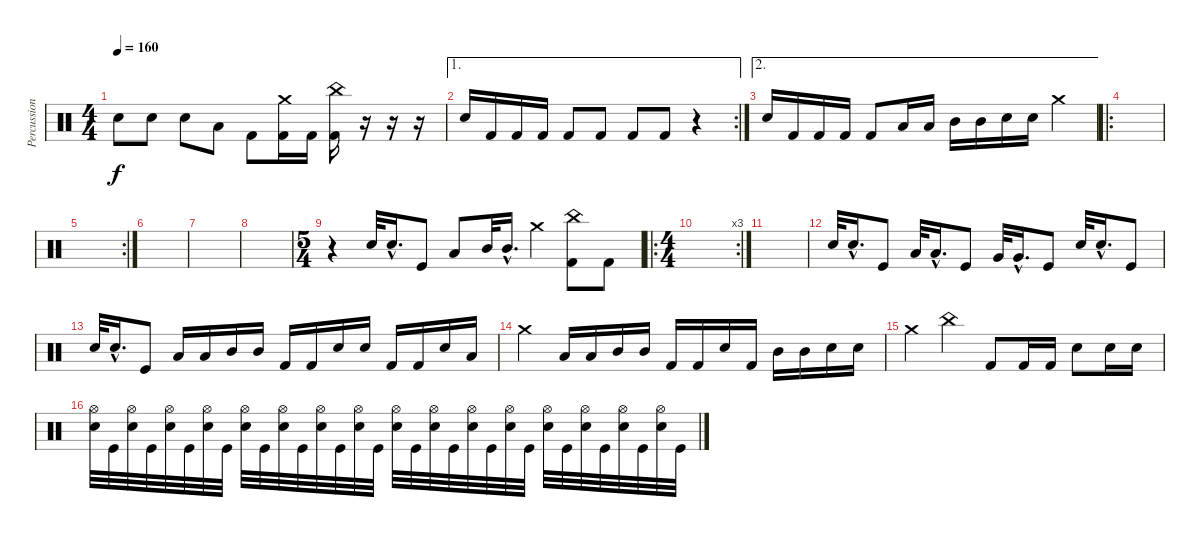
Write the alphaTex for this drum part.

\track ("Percussion" "Percussion") {instrument percussion}
\staff {score}
\articulation defaults
\ts (4 4)
\tempo 160
\clef neutral
\ks c "Electric Snare (hit)".8{dy f} "Electric Snare (hit)".8 "Electric Snare (hit)".8 "Low Floor Tom (hit)".8 "Kick (hit) 2".8
("Crash medium (hit)" "Kick (hit) 2").16 "Kick (hit) 2".16 ("China (hit)" "Kick (hit) 2").16 r.16 r.16 r.16 |
\ae 1
\rc 2 "Electric Snare (hit)".16 "Kick (hit) 2".16 "Kick (hit) 2".16 "Kick (hit) 2".16 "Kick (hit) 2".8 "Kick (hit) 2".8 "Kick (hit) 2".8 "Kick (hit) 2".8
r.4 |
\ae 2 "Electric Snare (hit)".16 "Kick (hit) 2".16 "Kick (hit) 2".16 "Kick (hit) 2".16 "Kick (hit) 2".8 "Low Tom (hit)".16 "Low Tom (hit)".16 "Mid Tom (hit)".16 "Mid Tom (hit)".16 "Electric Snare (hit)".16 "Electric Snare (hit)".16 "Crash medium (hit)".4
|
\ro
|
\rc 2
|
|
|
|
\ts (5 4)
r.4 "Electric Snare (hit)".32 "Electric Snare (hit)"{hac}.16{d} "Kick (hit)".8 "Low Tom (hit)".8 "Mid Tom (hit)".32 "Mid Tom (hit)"{hac}.16{d} "Crash medium (hit)".4 ("China (hit)" "Kick (hit) 2").8 "Kick (hit) 2".8 |
\ro
\rc 3
\ts (4 4)
|
|
"Electric Snare (hit)".32 "Electric Snare (hit)"{hac}.16{d} "Kick (hit)".8 "Low Tom (hit)".32 "Low Tom (hit)"{hac}.16{d} "Kick (hit)".8 "Very Low Tom (hit)".32 "Very Low Tom (hit)"{hac}.16{d} "Kick (hit)".8 "Electric Snare (hit)".32 "Electric Snare (hit)"{hac}.16{d} "Kick (hit)".8 |
"Electric Snare (hit)".32 "Electric Snare (hit)"{hac}.16{d} "Kick (hit)".8 "Low Tom (hit)".16 "Low Tom (hit)".16 "Mid Tom (hit)".16 "Mid Tom (hit)".16 "Kick (hit) 2".16 "Kick (hit) 2".16 "Electric Snare (hit)".16 "Electric Snare (hit)".16 "Kick (hit) 2".16 "Kick (hit) 2".16 "Electric Snare (hit)".16 "Low Floor Tom (hit)".16 |
"Crash medium (hit)".4 "Low Tom (hit)".16 "Low Tom (hit)".16 "Mid Tom (hit)".16 "Mid Tom (hit)".16 "Kick (hit) 2".16 "Kick (hit) 2".16 "Electric Snare (hit)".16 "Kick (hit) 2".16 "Mid Tom (hit)".16 "Mid Tom (hit)".16 "Electric Snare (hit)".16 "Electric Snare (hit)".16 |
"Crash medium (hit)".4 "China (hit)".4 "Kick (hit) 2".8 "Kick (hit) 2".16 "Kick (hit) 2".16 "Electric Snare (hit)".8 "Electric Snare (hit)".16 "Electric Snare (hit)".16 |
("Hi-Hat (open)" "Electric Snare (hit)").32 "Kick (hit)".32 ("Hi-Hat (open)" "Electric Snare (hit)").32 "Kick (hit)".32 ("Hi-Hat (open)" "Electric Snare (hit)").32 "Kick (hit)".32 ("Hi-Hat (open)" "Electric Snare (hit)").32 "Kick (hit)".32 ("Hi-Hat (open)" "Electric Snare (hit)").32 "Kick (hit)".32 ("Hi-Hat (open)" "Electric Snare (hit)").32 "Kick (hit)".32 ("Hi-Hat (open)" "Electric Snare (hit)").32 "Kick (hit)".32 ("Hi-Hat (open)" "Electric Snare (hit)").32 "Kick (hit)".32 ("Hi-Hat (open)" "Electric Snare (hit)").32 "Kick (hit)".32 ("Hi-Hat (open)" "Electric Snare (hit)").32 "Kick (hit)".32 ("Hi-Hat (open)" "Electric Snare (hit)").32 "Kick (hit)".32 ("Hi-Hat (open)" "Electric Snare (hit)").32 "Kick (hit)".32 ("Hi-Hat (open)" "Electric Snare (hit)").32 "Kick (hit)".32 ("Hi-Hat (open)" "Electric Snare (hit)").32 "Kick (hit)".32 ("Hi-Hat (open)" "Electric Snare (hit)").32 "Kick (hit)".32 ("Hi-Hat (open)" "Electric Snare (hit)").32 "Kick (hit)".32
